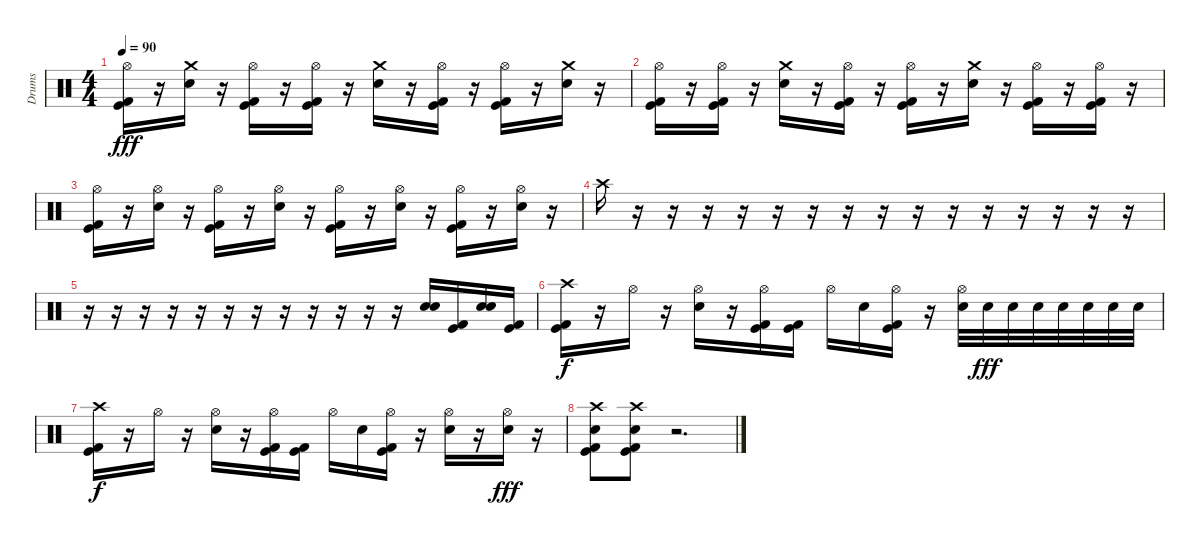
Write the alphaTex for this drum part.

\track ("Drums" "Drums") {instrument percussion}
\staff {score}
\articulation defaults
\ts (4 4)
\tempo 90
\clef neutral
\ks c
("Hi-Hat (open)" "Kick (hit)" "Kick (hit) 2").16{dy fff} r.16 ("Crash medium (hit)" "Electric Snare (hit)").16 r.16 ("Hi-Hat (open)" "Kick (hit)" "Kick (hit) 2").16 r.16 ("Hi-Hat (open)" "Kick (hit)" "Kick (hit) 2").16 r.16 ("Crash medium (hit)" "Electric Snare (hit)").16 r.16 ("Hi-Hat (open)" "Kick (hit)" "Kick (hit) 2").16 r.16 ("Hi-Hat (open)" "Kick (hit)" "Kick (hit) 2").16 r.16 ("Crash medium (hit)" "Electric Snare (hit)").16 r.16 |
("Hi-Hat (open)" "Kick (hit)" "Kick (hit) 2").16 r.16 ("Hi-Hat (open)" "Kick (hit)" "Kick (hit) 2").16 r.16 ("Crash medium (hit)" "Electric Snare (hit)").16 r.16 ("Hi-Hat (open)" "Kick (hit)" "Kick (hit) 2").16 r.16 ("Hi-Hat (open)" "Kick (hit)" "Kick (hit) 2").16 r.16 ("Crash medium (hit)" "Electric Snare (hit)").16 r.16 ("Hi-Hat (open)" "Kick (hit)" "Kick (hit) 2").16 r.16 ("Hi-Hat (open)" "Kick (hit)" "Kick (hit) 2").16 r.16 |
("Hi-Hat (open)" "Kick (hit)" "Kick (hit) 2").16 r.16 ("Hi-Hat (open)" "Electric Snare (hit)").16 r.16 ("Hi-Hat (open)" "Kick (hit)" "Kick (hit) 2").16 r.16 ("Hi-Hat (open)" "Electric Snare (hit)").16 r.16 ("Hi-Hat (open)" "Kick (hit)" "Kick (hit) 2").16 r.16 ("Hi-Hat (open)" "Electric Snare (hit)").16 r.16 ("Hi-Hat (open)" "Kick (hit)" "Kick (hit) 2").16 r.16 ("Hi-Hat (open)" "Electric Snare (hit)").16 r.16 |
"Crash high (hit)".16 r.16 r.16 r.16 r.16 r.16 r.16 r.16 r.16 r.16 r.16 r.16 r.16 r.16 r.16 r.16 |
r.16 r.16 r.16 r.16 r.16 r.16 r.16 r.16 r.16 r.16 r.16 r.16 ("Electric Snare (hit)" "Electric Snare (hit)").16 ("Kick (hit)" "Kick (hit) 2").16 ("Electric Snare (hit)" "Electric Snare (hit)").16 ("Kick (hit)" "Kick (hit) 2").16 |
("Crash high (hit)" "Kick (hit)" "Kick (hit) 2").16{dy f} r.16 "Hi-Hat (open)".16 r.16 ("Hi-Hat (open)" "Electric Snare (hit)").16 r.16 ("Hi-Hat (open)" "Kick (hit)" "Kick (hit) 2").16 ("Kick (hit)" "Kick (hit) 2").16 "Hi-Hat (open)".16 "Electric Snare (hit)".16 ("Hi-Hat (open)" "Kick (hit)" "Kick (hit) 2").16 r.16 ("Hi-Hat (open)" "Electric Snare (hit)").32 "Electric Snare (hit)".32{dy fff} "Electric Snare (hit)".32 "Electric Snare (hit)".32 "Electric Snare (hit)".32 "Electric Snare (hit)".32 "Electric Snare (hit)".32 "Electric Snare (hit)".32 |
("Crash high (hit)" "Kick (hit)" "Kick (hit) 2").16{dy f} r.16 "Hi-Hat (open)".16 r.16 ("Hi-Hat (open)" "Electric Snare (hit)").16 r.16 ("Hi-Hat (open)" "Kick (hit)" "Kick (hit) 2").16 ("Kick (hit)" "Kick (hit) 2").16 "Hi-Hat (open)".16 "Electric Snare (hit)".16 ("Hi-Hat (open)" "Kick (hit)" "Kick (hit) 2").16 r.16 ("Hi-Hat (open)" "Electric Snare (hit)").16 r.16 ("Hi-Hat (open)" "Electric Snare (hit)").16{dy fff} r.16 |
("Crash high (hit)" "Electric Snare (hit)" "Kick (hit) 2" "Kick (hit)").8 ("Crash high (hit)" "Electric Snare (hit)" "Kick (hit) 2" "Kick (hit)").8 r.2{d}
